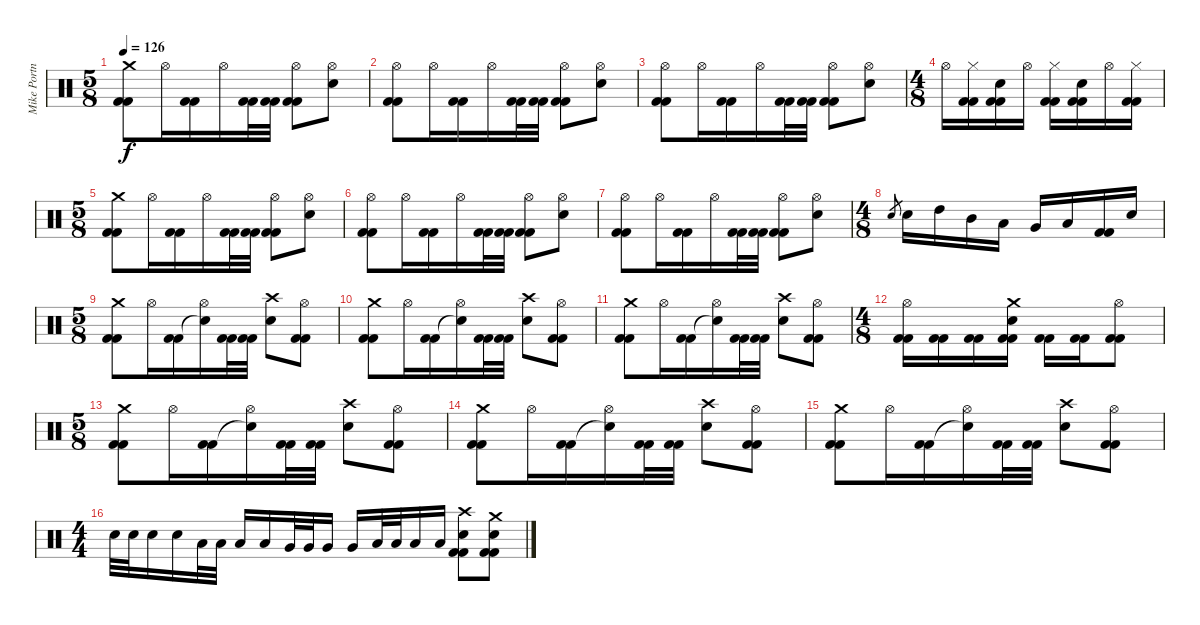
\track ("Mike Portnoy" "Mike Portn") {instrument percussion}
\staff {score}
\articulation defaults
\ts (5 8)
\tempo 126
\clef neutral
\ks c
("Crash medium (hit)" "Kick (hit) 2" "Kick (hit) 2").8{dy f} "Hi-Hat (open)".16 ("Kick (hit) 2" "Kick (hit) 2").16 "Hi-Hat (open)".16 ("Kick (hit) 2" "Kick (hit) 2").32 ("Kick (hit) 2" "Kick (hit) 2").32 ("Hi-Hat (open)" "Kick (hit) 2" "Kick (hit) 2").8 ("Hi-Hat (open)" "Electric Snare (hit)").8 |
("Hi-Hat (open)" "Kick (hit) 2" "Kick (hit) 2").8 "Hi-Hat (open)".16 ("Kick (hit) 2" "Kick (hit) 2").16 "Hi-Hat (open)".16 ("Kick (hit) 2" "Kick (hit) 2").32 ("Kick (hit) 2" "Kick (hit) 2").32 ("Hi-Hat (open)" "Kick (hit) 2" "Kick (hit) 2").8 ("Hi-Hat (open)" "Electric Snare (hit)").8 |
("Hi-Hat (open)" "Kick (hit) 2" "Kick (hit) 2").8 "Hi-Hat (open)".16 ("Kick (hit) 2" "Kick (hit) 2").16 "Hi-Hat (open)".16 ("Kick (hit) 2" "Kick (hit) 2").32 ("Kick (hit) 2" "Kick (hit) 2").32 ("Hi-Hat (open)" "Kick (hit) 2" "Kick (hit) 2").8 ("Hi-Hat (open)" "Electric Snare (hit)").8 |
\ts (4 8)
"Hi-Hat (open)".16 ("Hi-Hat (closed)" "Kick (hit) 2" "Kick (hit) 2").16 ("Electric Snare (hit)" "Kick (hit) 2" "Kick (hit) 2").16 "Hi-Hat (open)".16 ("Hi-Hat (closed)" "Kick (hit) 2" "Kick (hit) 2").16 ("Electric Snare (hit)" "Kick (hit) 2" "Kick (hit) 2").16 "Hi-Hat (open)".16 ("Hi-Hat (closed)" "Kick (hit) 2" "Kick (hit) 2").16 |
\ts (5 8)
("Crash medium (hit)" "Kick (hit) 2" "Kick (hit) 2").8 "Hi-Hat (open)".16 ("Kick (hit) 2" "Kick (hit) 2").16 "Hi-Hat (open)".16 ("Kick (hit) 2" "Kick (hit) 2").32 ("Kick (hit) 2" "Kick (hit) 2").32 ("Hi-Hat (open)" "Kick (hit) 2" "Kick (hit) 2").8 ("Hi-Hat (open)" "Electric Snare (hit)").8 |
("Hi-Hat (open)" "Kick (hit) 2" "Kick (hit) 2").8 "Hi-Hat (open)".16 ("Kick (hit) 2" "Kick (hit) 2").16 "Hi-Hat (open)".16 ("Kick (hit) 2" "Kick (hit) 2").32 ("Kick (hit) 2" "Kick (hit) 2").32 ("Hi-Hat (open)" "Kick (hit) 2" "Kick (hit) 2").8 ("Hi-Hat (open)" "Electric Snare (hit)").8 |
("Hi-Hat (open)" "Kick (hit) 2" "Kick (hit) 2").8 "Hi-Hat (open)".16 ("Kick (hit) 2" "Kick (hit) 2").16 "Hi-Hat (open)".16 ("Kick (hit) 2" "Kick (hit) 2").32 ("Kick (hit) 2" "Kick (hit) 2").32 ("Hi-Hat (open)" "Kick (hit) 2" "Kick (hit) 2").8 ("Hi-Hat (open)" "Electric Snare (hit)").8 |
\ts (4 8)
"Electric Snare (hit)".8{gr} "Electric Snare (hit)".16 "High Tom (hit)".16 "Mid Tom (hit)".16 "Low Tom (hit)".16 "Very Low Tom (hit)".16 "Low Floor Tom (hit)".16 ("Kick (hit) 2" "Kick (hit) 2").16 "Electric Snare (hit)".16 |
\ts (5 8)
("Crash medium (hit)" "Kick (hit) 2" "Kick (hit) 2").8 "Hi-Hat (open)".16 ("Kick (hit) 2" "Kick (hit) 2").16 ("Hi-Hat (open)" "Snare (hit)"{t}).16 ("Kick (hit) 2" "Kick (hit) 2").32 ("Kick (hit) 2" "Kick (hit) 2").32 ("Crash high (hit)" "Electric Snare (hit)").8 ("Hi-Hat (open)" "Kick (hit) 2" "Kick (hit) 2").8 |
("Crash medium (hit)" "Kick (hit) 2" "Kick (hit) 2").8 "Hi-Hat (open)".16 ("Kick (hit) 2" "Kick (hit) 2").16 ("Hi-Hat (open)" "Snare (hit)"{t}).16 ("Kick (hit) 2" "Kick (hit) 2").32 ("Kick (hit) 2" "Kick (hit) 2").32 ("Crash high (hit)" "Electric Snare (hit)").8 ("Hi-Hat (open)" "Kick (hit) 2" "Kick (hit) 2").8 |
("Crash medium (hit)" "Kick (hit) 2" "Kick (hit) 2").8 "Hi-Hat (open)".16 ("Kick (hit) 2" "Kick (hit) 2").16 ("Hi-Hat (open)" "Snare (hit)"{t}).16 ("Kick (hit) 2" "Kick (hit) 2").32 ("Kick (hit) 2" "Kick (hit) 2").32 ("Crash high (hit)" "Electric Snare (hit)").8 ("Hi-Hat (open)" "Kick (hit) 2" "Kick (hit) 2").8 |
\ts (4 8)
("Hi-Hat (open)" "Kick (hit) 2" "Kick (hit) 2").16 ("Kick (hit) 2" "Kick (hit) 2").16 ("Kick (hit) 2" "Kick (hit) 2").16 ("Crash medium (hit)" "Electric Snare (hit)" "Kick (hit) 2" "Kick (hit) 2").16 ("Kick (hit) 2" "Kick (hit) 2").16 ("Kick (hit) 2" "Kick (hit) 2").16 ("Hi-Hat (open)" "Kick (hit) 2" "Kick (hit) 2").8 |
\ts (5 8)
("Crash medium (hit)" "Kick (hit) 2" "Kick (hit) 2").8 "Hi-Hat (open)".16 ("Kick (hit) 2" "Kick (hit) 2").16 ("Hi-Hat (open)" "Snare (hit)"{t}).16 ("Kick (hit) 2" "Kick (hit) 2").32 ("Kick (hit) 2" "Kick (hit) 2").32 ("Crash high (hit)" "Electric Snare (hit)").8 ("Hi-Hat (open)" "Kick (hit) 2" "Kick (hit) 2").8 |
("Crash medium (hit)" "Kick (hit) 2" "Kick (hit) 2").8 "Hi-Hat (open)".16 ("Kick (hit) 2" "Kick (hit) 2").16 ("Hi-Hat (open)" "Snare (hit)"{t}).16 ("Kick (hit) 2" "Kick (hit) 2").32 ("Kick (hit) 2" "Kick (hit) 2").32 ("Crash high (hit)" "Electric Snare (hit)").8 ("Hi-Hat (open)" "Kick (hit) 2" "Kick (hit) 2").8 |
("Crash medium (hit)" "Kick (hit) 2" "Kick (hit) 2").8 "Hi-Hat (open)".16 ("Kick (hit) 2" "Kick (hit) 2").16 ("Hi-Hat (open)" "Snare (hit)"{t}).16 ("Kick (hit) 2" "Kick (hit) 2").32 ("Kick (hit) 2" "Kick (hit) 2").32 ("Crash high (hit)" "Electric Snare (hit)").8 ("Hi-Hat (open)" "Kick (hit) 2" "Kick (hit) 2").8 |
\ts (4 4)
"Electric Snare (hit)".32 "Electric Snare (hit)".32 "Electric Snare (hit)".16 "Electric Snare (hit)".16 "Low Tom (hit)".32 "Low Tom (hit)".32 "Low Tom (hit)".16 "Low Tom (hit)".16 "Very Low Tom (hit)".32 "Very Low Tom (hit)".32 "Very Low Tom (hit)".16 "Very Low Tom (hit)".16 "Low Floor Tom (hit)".32 "Low Floor Tom (hit)".32 "Low Floor Tom (hit)".16 "Low Floor Tom (hit)".16 ("Crash high (hit)" "Electric Snare (hit)" "Kick (hit) 2" "Kick (hit) 2").8 ("Crash medium (hit)" "Electric Snare (hit)" "Kick (hit) 2" "Kick (hit) 2").8
